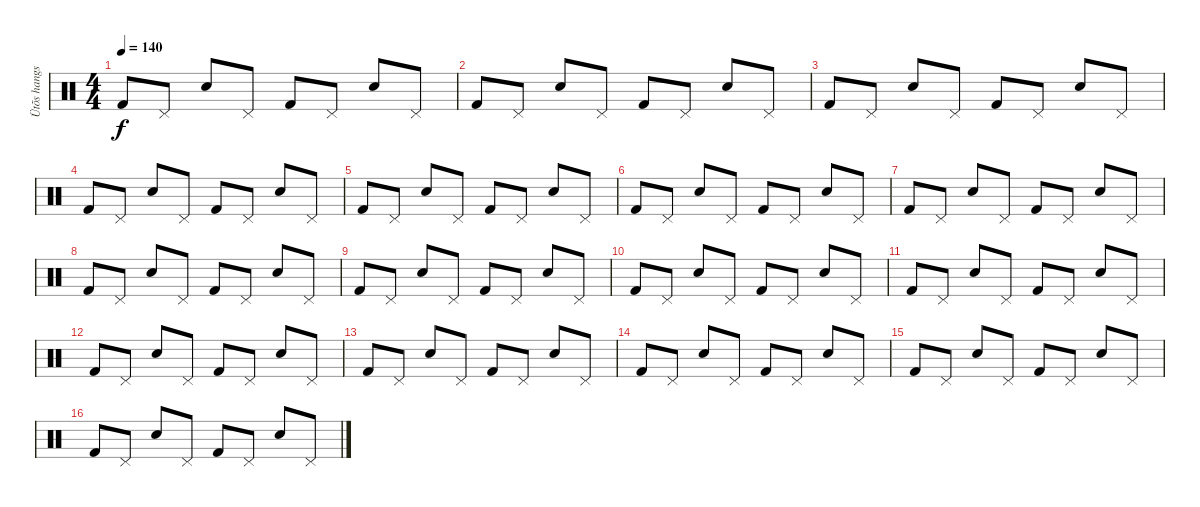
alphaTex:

\track ("Ütõs hangszer" "Ütõs hangs") {instrument percussion}
\staff {score}
\articulation defaults
\ts (4 4)
\tempo 140
\clef neutral
\ks c "Kick (hit) 2".8{dy f} "Pedal Hi-Hat (hit)".8 "Snare (hit) 2".8 "Pedal Hi-Hat (hit)".8 "Kick (hit) 2".8 "Pedal Hi-Hat (hit)".8 "Snare (hit) 2".8 "Pedal Hi-Hat (hit)".8
|
"Kick (hit) 2".8 "Pedal Hi-Hat (hit)".8 "Snare (hit) 2".8 "Pedal Hi-Hat (hit)".8 "Kick (hit) 2".8 "Pedal Hi-Hat (hit)".8 "Snare (hit) 2".8 "Pedal Hi-Hat (hit)".8 |
"Kick (hit) 2".8 "Pedal Hi-Hat (hit)".8 "Snare (hit) 2".8 "Pedal Hi-Hat (hit)".8 "Kick (hit) 2".8 "Pedal Hi-Hat (hit)".8 "Snare (hit) 2".8 "Pedal Hi-Hat (hit)".8 |
"Kick (hit) 2".8 "Pedal Hi-Hat (hit)".8 "Snare (hit) 2".8 "Pedal Hi-Hat (hit)".8 "Kick (hit) 2".8 "Pedal Hi-Hat (hit)".8 "Snare (hit) 2".8 "Pedal Hi-Hat (hit)".8 |
"Kick (hit) 2".8 "Pedal Hi-Hat (hit)".8 "Snare (hit) 2".8 "Pedal Hi-Hat (hit)".8 "Kick (hit) 2".8 "Pedal Hi-Hat (hit)".8 "Snare (hit) 2".8 "Pedal Hi-Hat (hit)".8 |
"Kick (hit) 2".8 "Pedal Hi-Hat (hit)".8 "Snare (hit) 2".8 "Pedal Hi-Hat (hit)".8 "Kick (hit) 2".8 "Pedal Hi-Hat (hit)".8 "Snare (hit) 2".8 "Pedal Hi-Hat (hit)".8 |
"Kick (hit) 2".8 "Pedal Hi-Hat (hit)".8 "Snare (hit) 2".8 "Pedal Hi-Hat (hit)".8 "Kick (hit) 2".8 "Pedal Hi-Hat (hit)".8 "Snare (hit) 2".8 "Pedal Hi-Hat (hit)".8 |
"Kick (hit) 2".8 "Pedal Hi-Hat (hit)".8 "Snare (hit) 2".8 "Pedal Hi-Hat (hit)".8 "Kick (hit) 2".8 "Pedal Hi-Hat (hit)".8 "Snare (hit) 2".8 "Pedal Hi-Hat (hit)".8 |
"Kick (hit) 2".8 "Pedal Hi-Hat (hit)".8 "Snare (hit) 2".8 "Pedal Hi-Hat (hit)".8 "Kick (hit) 2".8 "Pedal Hi-Hat (hit)".8 "Snare (hit) 2".8 "Pedal Hi-Hat (hit)".8 |
"Kick (hit) 2".8 "Pedal Hi-Hat (hit)".8 "Snare (hit) 2".8 "Pedal Hi-Hat (hit)".8 "Kick (hit) 2".8 "Pedal Hi-Hat (hit)".8 "Snare (hit) 2".8 "Pedal Hi-Hat (hit)".8 |
"Kick (hit) 2".8 "Pedal Hi-Hat (hit)".8 "Snare (hit) 2".8 "Pedal Hi-Hat (hit)".8 "Kick (hit) 2".8 "Pedal Hi-Hat (hit)".8 "Snare (hit) 2".8 "Pedal Hi-Hat (hit)".8 |
"Kick (hit) 2".8 "Pedal Hi-Hat (hit)".8 "Snare (hit) 2".8 "Pedal Hi-Hat (hit)".8 "Kick (hit) 2".8 "Pedal Hi-Hat (hit)".8 "Snare (hit) 2".8 "Pedal Hi-Hat (hit)".8 |
"Kick (hit) 2".8 "Pedal Hi-Hat (hit)".8 "Snare (hit) 2".8 "Pedal Hi-Hat (hit)".8 "Kick (hit) 2".8 "Pedal Hi-Hat (hit)".8 "Snare (hit) 2".8 "Pedal Hi-Hat (hit)".8 |
"Kick (hit) 2".8 "Pedal Hi-Hat (hit)".8 "Snare (hit) 2".8 "Pedal Hi-Hat (hit)".8 "Kick (hit) 2".8 "Pedal Hi-Hat (hit)".8 "Snare (hit) 2".8 "Pedal Hi-Hat (hit)".8 |
"Kick (hit) 2".8 "Pedal Hi-Hat (hit)".8 "Snare (hit) 2".8 "Pedal Hi-Hat (hit)".8 "Kick (hit) 2".8 "Pedal Hi-Hat (hit)".8 "Snare (hit) 2".8 "Pedal Hi-Hat (hit)".8 |
"Kick (hit) 2".8 "Pedal Hi-Hat (hit)".8 "Snare (hit) 2".8 "Pedal Hi-Hat (hit)".8 "Kick (hit) 2".8 "Pedal Hi-Hat (hit)".8 "Snare (hit) 2".8 "Pedal Hi-Hat (hit)".8
